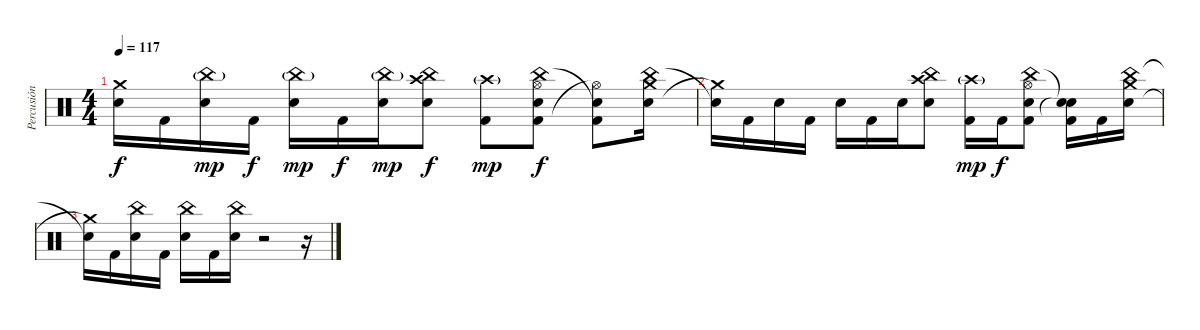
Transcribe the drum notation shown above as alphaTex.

\track ("Percusión" "Percusión") {instrument percussion}
\staff {score}
\articulation defaults
\ts (4 4)
\tempo 117
\clef neutral
\ks c
("Snare (hit)"{t} "Crash medium (hit)"{t}).16{dy f} "Kick (hit) 2".16 ("China (hit)"{g} "Electric Snare (hit)").16{dy mp} "Kick (hit) 2".16{dy f} ("China (hit)"{g} "Electric Snare (hit)").16{dy mp} "Kick (hit) 2".16{dy f} ("China (hit)"{g} "Electric Snare (hit)").16{dy mp} ("China (hit)" "Snare (hit) 2" "Crash high (hit)").8{dy f} ("Crash high (hit)"{g} "Kick (hit) 2").8{dy mp} ("China (hit)" "Kick (hit) 2" "Hi-Hat (open)" "Electric Snare (hit)").8{dy f} ("Snare (hit)"{t} "Hi-Hat (open)"{t} "Kick (hit) 2").8 ("China (hit)" "Snare (hit) 2" "Crash medium (hit)").16 |
("Snare (hit)"{t} "Crash medium (hit)"{t}).16 "Kick (hit) 2".16 "Snare (hit) 2".16 "Kick (hit) 2".16 "Snare (hit) 2".16 "Kick (hit) 2".16 "Snare (hit) 2".16 ("China (hit)" "Snare (hit) 2" "Crash high (hit)").8 ("Crash high (hit)"{g} "Kick (hit) 2").16{dy mp} "Kick (hit) 2".16{dy f} ("China (hit)" "Kick (hit) 2" "Hi-Hat (open)" "Electric Snare (hit)").8 ("Snare (hit)"{t} "Snare (hit)"{t} "Kick (hit) 2").16 "Kick (hit) 2".16 ("China (hit)" "Snare (hit) 2" "Crash medium (hit)").16 |
("Snare (hit)"{t} "Crash medium (hit)"{t}).16 "Kick (hit) 2".16 ("China (hit)" "Electric Snare (hit)").16 "Kick (hit) 2".16 ("China (hit)" "Electric Snare (hit)").16 "Kick (hit) 2".16 ("China (hit)" "Electric Snare (hit)").16 r.2 r.16
